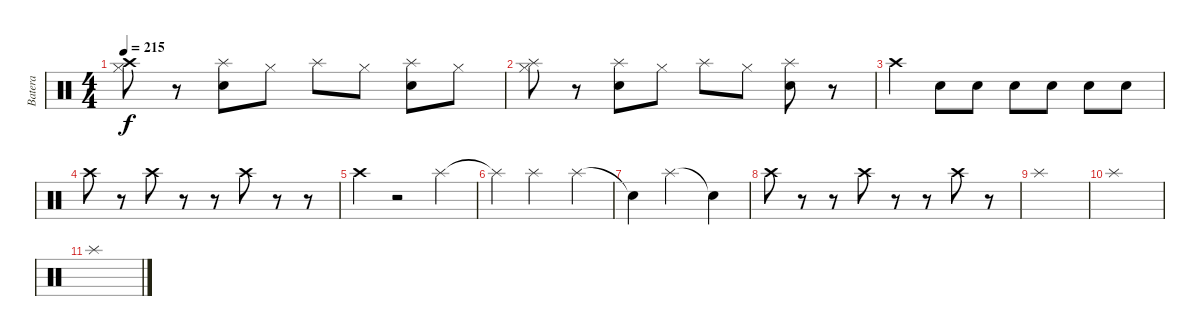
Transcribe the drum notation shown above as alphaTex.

\track ("Batera" "Batera") {instrument percussion}
\staff {score}
\articulation defaults
\ts (4 4)
\tempo 215
\clef neutral
\ks c
("Crash high (hit)" "Hi-Hat (closed)").8{dy f} r.8 ("Splash (hit)" "Electric Snare (hit)").8 "Hi-Hat (closed)".8 "Splash (hit)".8 "Hi-Hat (closed)".8 ("Splash (hit)" "Electric Snare (hit)").8 "Hi-Hat (closed)".8 |
("Splash (hit)" "Hi-Hat (closed)").8 r.8 ("Splash (hit)" "Electric Snare (hit)").8 "Hi-Hat (closed)".8 "Splash (hit)".8 "Hi-Hat (closed)".8 ("Splash (hit)" "Electric Snare (hit)").8 r.8 |
"Crash high (hit)".4 "Electric Snare (hit)".8 "Electric Snare (hit)".8 "Electric Snare (hit)".8 "Electric Snare (hit)".8 "Electric Snare (hit)".8 "Electric Snare (hit)".8 |
"Crash high (hit)".8 r.8 "Crash high (hit)".8 r.8 r.8 "Crash high (hit)".8 r.8 r.8 |
"Crash high (hit)".4 r.2 "Splash (hit)".4 |
"Splash (hit)"{t}.4 "Splash (hit)".2 "Splash (hit)".4 |
"Snare (hit)"{t}.4 "Splash (hit)".2 "Snare (hit)"{t}.4 |
"Crash high (hit)".8 r.8 r.8 "Crash high (hit)".8 r.8 r.8 "Crash high (hit)".8 r.8 |
"Splash (hit)".1 |
"Splash (hit)".1 |
"Splash (hit)".1
